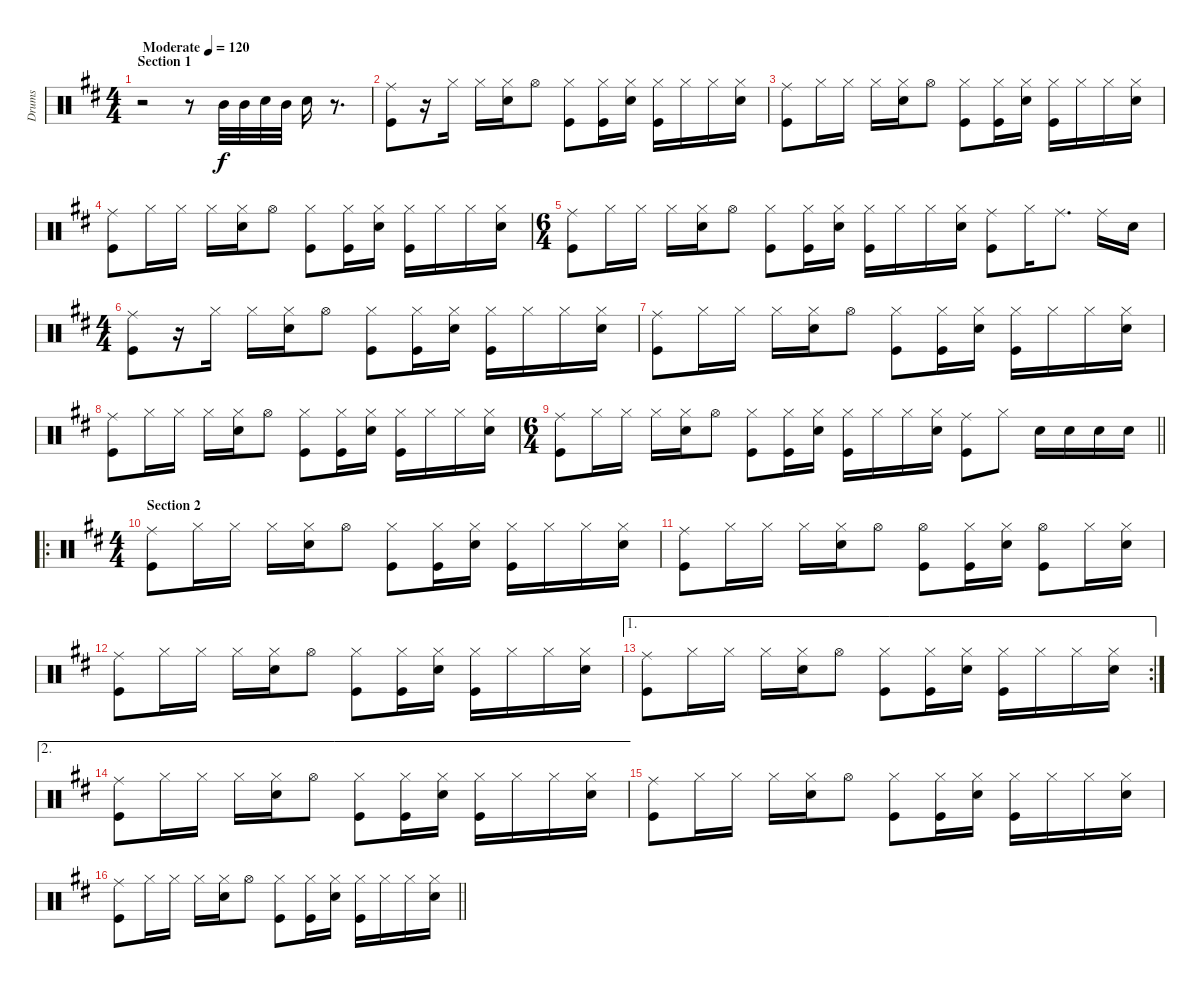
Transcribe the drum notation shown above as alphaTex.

\track ("Drums" "Drums") {instrument percussion}
\staff {score}
\articulation defaults
\ts (4 4)
\section ("" "Section 1")
\tempo (120 "Moderate")
\clef neutral
\ks d
r.2{dy f} r.8 "Mid Tom (hit)".32 "Mid Tom (hit)".32 "Snare (hit) 2".32 "Mid Tom (hit)".32 "Snare (hit) 2".16 r.8{d} |
("Ride (middle)" "Kick (hit)").8 r.16 "Hi-Hat (closed)".16 "Hi-Hat (closed)".16 ("Hi-Hat (closed)" "Snare (hit) 2").16 "Hi-Hat (open)".8 ("Hi-Hat (closed)" "Kick (hit)").8 ("Hi-Hat (closed)" "Kick (hit)").16 ("Hi-Hat (closed)" "Snare (hit) 2").16 ("Hi-Hat (closed)" "Kick (hit)").16 "Hi-Hat (closed)".16 "Hi-Hat (closed)".16 ("Hi-Hat (closed)" "Snare (hit) 2").16 |
("Ride (middle)" "Kick (hit)").8 "Hi-Hat (closed)".16 "Hi-Hat (closed)".16 "Hi-Hat (closed)".16 ("Hi-Hat (closed)" "Snare (hit) 2").16 "Hi-Hat (open)".8 ("Hi-Hat (closed)" "Kick (hit)").8 ("Hi-Hat (closed)" "Kick (hit)").16 ("Hi-Hat (closed)" "Snare (hit) 2").16 ("Hi-Hat (closed)" "Kick (hit)").16 "Hi-Hat (closed)".16 "Hi-Hat (closed)".16 ("Hi-Hat (closed)" "Snare (hit) 2").16 |
("Ride (middle)" "Kick (hit)").8 "Hi-Hat (closed)".16 "Hi-Hat (closed)".16 "Hi-Hat (closed)".16 ("Hi-Hat (closed)" "Snare (hit) 2").16 "Hi-Hat (open)".8 ("Hi-Hat (closed)" "Kick (hit)").8 ("Hi-Hat (closed)" "Kick (hit)").16 ("Hi-Hat (closed)" "Snare (hit) 2").16 ("Hi-Hat (closed)" "Kick (hit)").16 "Hi-Hat (closed)".16 "Hi-Hat (closed)".16 ("Hi-Hat (closed)" "Snare (hit) 2").16 |
\ts (6 4)
("Ride (middle)" "Kick (hit)").8 "Hi-Hat (closed)".16 "Hi-Hat (closed)".16 "Hi-Hat (closed)".16 ("Hi-Hat (closed)" "Snare (hit) 2").16 "Hi-Hat (open)".8 ("Hi-Hat (closed)" "Kick (hit)").8 ("Hi-Hat (closed)" "Kick (hit)").16 ("Hi-Hat (closed)" "Snare (hit) 2").16 ("Hi-Hat (closed)" "Kick (hit)").16 "Hi-Hat (closed)".16 "Hi-Hat (closed)".16 ("Hi-Hat (closed)" "Snare (hit) 2").16 ("Ride (middle)" "Kick (hit)").8 "Hi-Hat (closed)".16 "Ride (middle)".8{d} "Ride (middle)".16 "Snare (hit) 2".16 |
\ts (4 4)
("Ride (middle)" "Kick (hit)").8 r.16 "Hi-Hat (closed)".16 "Hi-Hat (closed)".16 ("Hi-Hat (closed)" "Snare (hit) 2").16 "Hi-Hat (open)".8 ("Hi-Hat (closed)" "Kick (hit)").8 ("Hi-Hat (closed)" "Kick (hit)").16 ("Hi-Hat (closed)" "Snare (hit) 2").16 ("Hi-Hat (closed)" "Kick (hit)").16 "Hi-Hat (closed)".16 "Hi-Hat (closed)".16 ("Hi-Hat (closed)" "Snare (hit) 2").16 |
("Ride (middle)" "Kick (hit)").8 "Hi-Hat (closed)".16 "Hi-Hat (closed)".16 "Hi-Hat (closed)".16 ("Hi-Hat (closed)" "Snare (hit) 2").16 "Hi-Hat (open)".8 ("Hi-Hat (closed)" "Kick (hit)").8 ("Hi-Hat (closed)" "Kick (hit)").16 ("Hi-Hat (closed)" "Snare (hit) 2").16 ("Hi-Hat (closed)" "Kick (hit)").16 "Hi-Hat (closed)".16 "Hi-Hat (closed)".16 ("Hi-Hat (closed)" "Snare (hit) 2").16 |
("Ride (middle)" "Kick (hit)").8 "Hi-Hat (closed)".16 "Hi-Hat (closed)".16 "Hi-Hat (closed)".16 ("Hi-Hat (closed)" "Snare (hit) 2").16 "Hi-Hat (open)".8 ("Hi-Hat (closed)" "Kick (hit)").8 ("Hi-Hat (closed)" "Kick (hit)").16 ("Hi-Hat (closed)" "Snare (hit) 2").16 ("Hi-Hat (closed)" "Kick (hit)").16 "Hi-Hat (closed)".16 "Hi-Hat (closed)".16 ("Hi-Hat (closed)" "Snare (hit) 2").16 |
\ts (6 4)
\barLineRight lightlight
("Ride (middle)" "Kick (hit)").8 "Hi-Hat (closed)".16 "Hi-Hat (closed)".16 "Hi-Hat (closed)".16 ("Hi-Hat (closed)" "Snare (hit) 2").16 "Hi-Hat (open)".8 ("Hi-Hat (closed)" "Kick (hit)").8 ("Hi-Hat (closed)" "Kick (hit)").16 ("Hi-Hat (closed)" "Snare (hit) 2").16 ("Hi-Hat (closed)" "Kick (hit)").16 "Hi-Hat (closed)".16 "Hi-Hat (closed)".16 ("Hi-Hat (closed)" "Snare (hit) 2").16 ("Ride (middle)" "Kick (hit)").8 "Hi-Hat (closed)".8 "Snare (hit) 2".16 "Snare (hit) 2".16 "Snare (hit) 2".16 "Snare (hit) 2".16 |
\ro
\ts (4 4)
\section ("" "Section 2")
("Ride (middle)" "Kick (hit)").8 "Hi-Hat (closed)".16 "Hi-Hat (closed)".16 "Hi-Hat (closed)".16 ("Hi-Hat (closed)" "Snare (hit) 2").16 "Hi-Hat (open)".8 ("Hi-Hat (closed)" "Kick (hit)").8 ("Hi-Hat (closed)" "Kick (hit)").16 ("Hi-Hat (closed)" "Snare (hit) 2").16 ("Hi-Hat (closed)" "Kick (hit)").16 "Hi-Hat (closed)".16 "Hi-Hat (closed)".16 ("Hi-Hat (closed)" "Snare (hit) 2").16 |
("Ride (middle)" "Kick (hit)").8 "Hi-Hat (closed)".16 "Hi-Hat (closed)".16 "Hi-Hat (closed)".16 ("Hi-Hat (closed)" "Snare (hit) 2").16 "Hi-Hat (open)".8 ("Hi-Hat (open)" "Kick (hit)").8 ("Hi-Hat (closed)" "Kick (hit)").16 ("Hi-Hat (closed)" "Snare (hit) 2").16 ("Hi-Hat (open)" "Kick (hit)").8 "Hi-Hat (closed)".16 ("Hi-Hat (closed)" "Snare (hit) 2").16 |
("Ride (middle)" "Kick (hit)").8 "Hi-Hat (closed)".16 "Hi-Hat (closed)".16 "Hi-Hat (closed)".16 ("Hi-Hat (closed)" "Snare (hit) 2").16 "Hi-Hat (open)".8 ("Hi-Hat (closed)" "Kick (hit)").8 ("Hi-Hat (closed)" "Kick (hit)").16 ("Hi-Hat (closed)" "Snare (hit) 2").16 ("Hi-Hat (closed)" "Kick (hit)").16 "Hi-Hat (closed)".16 "Hi-Hat (closed)".16 ("Hi-Hat (closed)" "Snare (hit) 2").16 |
\ae 1
\rc 2
("Ride (middle)" "Kick (hit)").8 "Hi-Hat (closed)".16 "Hi-Hat (closed)".16 "Hi-Hat (closed)".16 ("Hi-Hat (closed)" "Snare (hit) 2").16 "Hi-Hat (open)".8 ("Hi-Hat (closed)" "Kick (hit)").8 ("Hi-Hat (closed)" "Kick (hit)").16 ("Hi-Hat (closed)" "Snare (hit) 2").16 ("Hi-Hat (closed)" "Kick (hit)").16 "Hi-Hat (closed)".16 "Hi-Hat (closed)".16 ("Hi-Hat (closed)" "Snare (hit) 2").16 |
\ae 2
("Ride (middle)" "Kick (hit)").8 "Hi-Hat (closed)".16 "Hi-Hat (closed)".16 "Hi-Hat (closed)".16 ("Hi-Hat (closed)" "Snare (hit) 2").16 "Hi-Hat (open)".8 ("Hi-Hat (closed)" "Kick (hit)").8 ("Hi-Hat (closed)" "Kick (hit)").16 ("Hi-Hat (closed)" "Snare (hit) 2").16 ("Hi-Hat (closed)" "Kick (hit)").16 "Hi-Hat (closed)".16 "Hi-Hat (closed)".16 ("Hi-Hat (closed)" "Snare (hit) 2").16 |
("Ride (middle)" "Kick (hit)").8 "Hi-Hat (closed)".16 "Hi-Hat (closed)".16 "Hi-Hat (closed)".16 ("Hi-Hat (closed)" "Snare (hit) 2").16 "Hi-Hat (open)".8 ("Hi-Hat (closed)" "Kick (hit)").8 ("Hi-Hat (closed)" "Kick (hit)").16 ("Hi-Hat (closed)" "Snare (hit) 2").16 ("Hi-Hat (closed)" "Kick (hit)").16 "Hi-Hat (closed)".16 "Hi-Hat (closed)".16 ("Hi-Hat (closed)" "Snare (hit) 2").16 |
\barLineRight lightlight
("Ride (middle)" "Kick (hit)").8 "Hi-Hat (closed)".16 "Hi-Hat (closed)".16 "Hi-Hat (closed)".16 ("Hi-Hat (closed)" "Snare (hit) 2").16 "Hi-Hat (open)".8 ("Hi-Hat (closed)" "Kick (hit)").8 ("Hi-Hat (closed)" "Kick (hit)").16 ("Hi-Hat (closed)" "Snare (hit) 2").16 ("Hi-Hat (closed)" "Kick (hit)").16 "Hi-Hat (closed)".16 "Hi-Hat (closed)".16 ("Hi-Hat (closed)" "Snare (hit) 2").16
